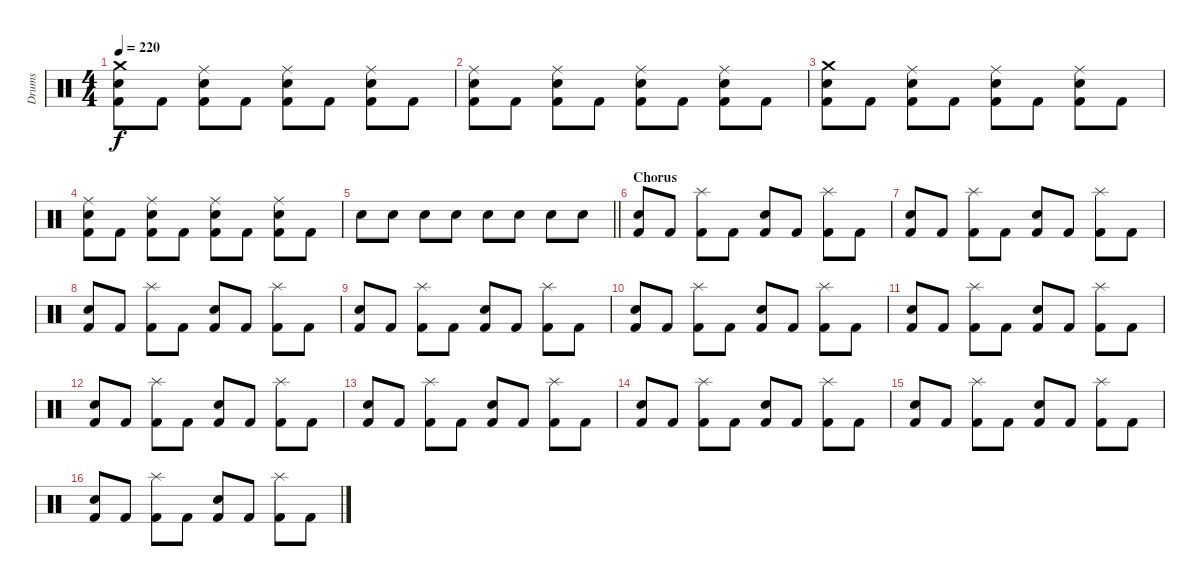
\track ("Drums" "Drums") {instrument percussion}
\staff {score}
\articulation defaults
\ts (4 4)
\tempo 220
\clef neutral
\ks c
("Kick (hit) 2" "Snare (hit) 2" "Crash medium (hit)").8{dy f} "Kick (hit) 2".8 ("Kick (hit) 2" "Snare (hit) 2" "Ride (middle)").8 "Kick (hit) 2".8 ("Kick (hit) 2" "Snare (hit) 2" "Ride (middle)").8 "Kick (hit) 2".8 ("Kick (hit) 2" "Snare (hit) 2" "Ride (middle)").8 "Kick (hit) 2".8 |
("Kick (hit) 2" "Snare (hit) 2" "Ride (middle)").8 "Kick (hit) 2".8 ("Kick (hit) 2" "Snare (hit) 2" "Ride (middle)").8 "Kick (hit) 2".8 ("Kick (hit) 2" "Snare (hit) 2" "Ride (middle)").8 "Kick (hit) 2".8 ("Kick (hit) 2" "Snare (hit) 2" "Ride (middle)").8 "Kick (hit) 2".8 |
("Kick (hit) 2" "Snare (hit) 2" "Crash medium (hit)").8 "Kick (hit) 2".8 ("Kick (hit) 2" "Snare (hit) 2" "Ride (middle)").8 "Kick (hit) 2".8 ("Kick (hit) 2" "Snare (hit) 2" "Ride (middle)").8 "Kick (hit) 2".8 ("Kick (hit) 2" "Snare (hit) 2" "Ride (middle)").8 "Kick (hit) 2".8 |
("Kick (hit) 2" "Snare (hit) 2" "Ride (middle)").8 "Kick (hit) 2".8 ("Kick (hit) 2" "Snare (hit) 2" "Ride (middle)").8 "Kick (hit) 2".8 ("Kick (hit) 2" "Snare (hit) 2" "Ride (middle)").8 "Kick (hit) 2".8 ("Kick (hit) 2" "Snare (hit) 2" "Ride (middle)").8 "Kick (hit) 2".8 |
\barLineRight lightlight "Snare (hit) 2".8 "Snare (hit) 2".8 "Snare (hit) 2".8 "Snare (hit) 2".8 "Snare (hit) 2".8 "Snare (hit) 2".8 "Snare (hit) 2".8 "Snare (hit) 2".8
|
\section ("" "Chorus")
("Kick (hit) 2" "Snare (hit) 2").8 "Kick (hit) 2".8 ("Kick (hit) 2" "Splash (hit)").8 "Kick (hit) 2".8 ("Kick (hit) 2" "Snare (hit) 2").8 "Kick (hit) 2".8 ("Kick (hit) 2" "Splash (hit)").8 "Kick (hit) 2".8 |
("Kick (hit) 2" "Snare (hit) 2").8 "Kick (hit) 2".8 ("Kick (hit) 2" "Splash (hit)").8 "Kick (hit) 2".8 ("Kick (hit) 2" "Snare (hit) 2").8 "Kick (hit) 2".8 ("Kick (hit) 2" "Splash (hit)").8 "Kick (hit) 2".8 |
("Kick (hit) 2" "Snare (hit) 2").8 "Kick (hit) 2".8 ("Kick (hit) 2" "Splash (hit)").8 "Kick (hit) 2".8 ("Kick (hit) 2" "Snare (hit) 2").8 "Kick (hit) 2".8 ("Kick (hit) 2" "Splash (hit)").8 "Kick (hit) 2".8 |
("Kick (hit) 2" "Snare (hit) 2").8 "Kick (hit) 2".8 ("Kick (hit) 2" "Splash (hit)").8 "Kick (hit) 2".8 ("Kick (hit) 2" "Snare (hit) 2").8 "Kick (hit) 2".8 ("Kick (hit) 2" "Splash (hit)").8 "Kick (hit) 2".8 |
("Kick (hit) 2" "Snare (hit) 2").8 "Kick (hit) 2".8 ("Kick (hit) 2" "Splash (hit)").8 "Kick (hit) 2".8 ("Kick (hit) 2" "Snare (hit) 2").8 "Kick (hit) 2".8 ("Kick (hit) 2" "Splash (hit)").8 "Kick (hit) 2".8 |
("Kick (hit) 2" "Snare (hit) 2").8 "Kick (hit) 2".8 ("Kick (hit) 2" "Splash (hit)").8 "Kick (hit) 2".8 ("Kick (hit) 2" "Snare (hit) 2").8 "Kick (hit) 2".8 ("Kick (hit) 2" "Splash (hit)").8 "Kick (hit) 2".8 |
("Kick (hit) 2" "Snare (hit) 2").8 "Kick (hit) 2".8 ("Kick (hit) 2" "Splash (hit)").8 "Kick (hit) 2".8 ("Kick (hit) 2" "Snare (hit) 2").8 "Kick (hit) 2".8 ("Kick (hit) 2" "Splash (hit)").8 "Kick (hit) 2".8 |
("Kick (hit) 2" "Snare (hit) 2").8 "Kick (hit) 2".8 ("Kick (hit) 2" "Splash (hit)").8 "Kick (hit) 2".8 ("Kick (hit) 2" "Snare (hit) 2").8 "Kick (hit) 2".8 ("Kick (hit) 2" "Splash (hit)").8 "Kick (hit) 2".8 |
("Kick (hit) 2" "Snare (hit) 2").8 "Kick (hit) 2".8 ("Kick (hit) 2" "Splash (hit)").8 "Kick (hit) 2".8 ("Kick (hit) 2" "Snare (hit) 2").8 "Kick (hit) 2".8 ("Kick (hit) 2" "Splash (hit)").8 "Kick (hit) 2".8 |
("Kick (hit) 2" "Snare (hit) 2").8 "Kick (hit) 2".8 ("Kick (hit) 2" "Splash (hit)").8 "Kick (hit) 2".8 ("Kick (hit) 2" "Snare (hit) 2").8 "Kick (hit) 2".8 ("Kick (hit) 2" "Splash (hit)").8 "Kick (hit) 2".8 |
("Kick (hit) 2" "Snare (hit) 2").8 "Kick (hit) 2".8 ("Kick (hit) 2" "Splash (hit)").8 "Kick (hit) 2".8 ("Kick (hit) 2" "Snare (hit) 2").8 "Kick (hit) 2".8 ("Kick (hit) 2" "Splash (hit)").8 "Kick (hit) 2".8
